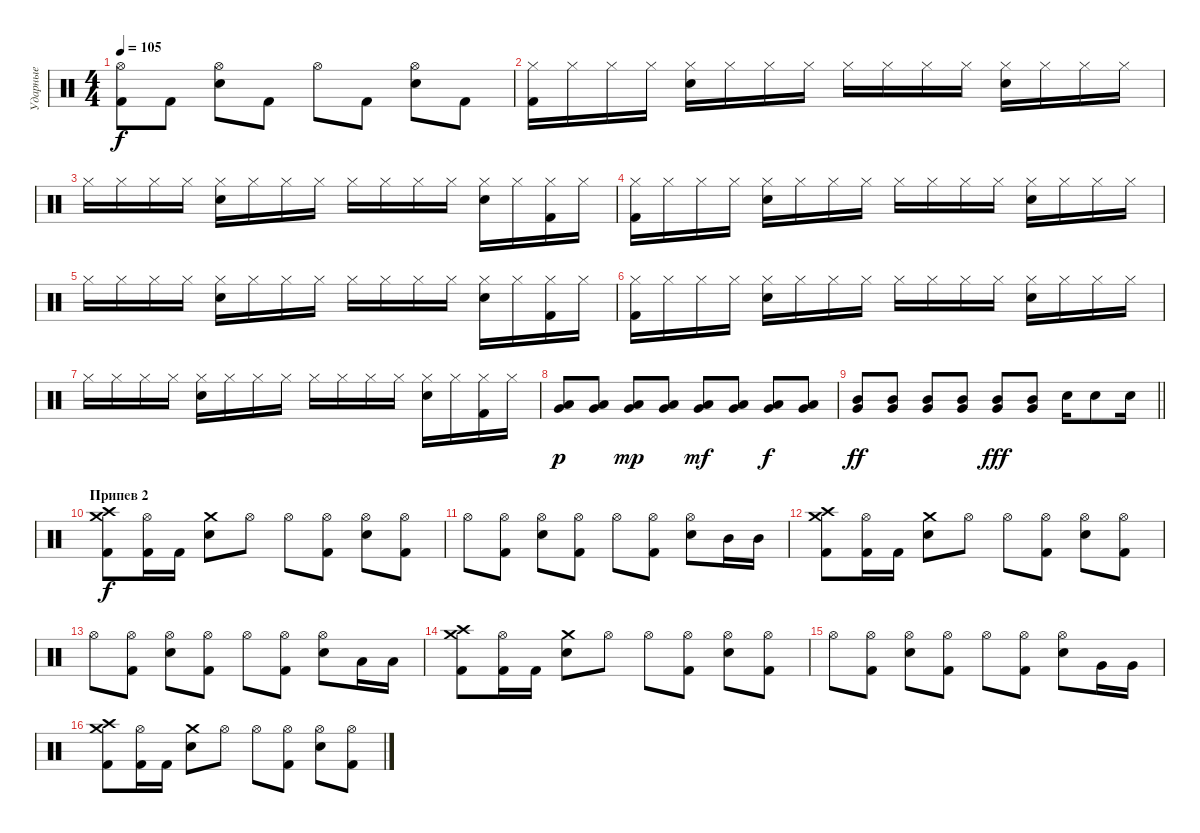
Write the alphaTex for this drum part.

\track ("Ударные" "Ударные") {instrument percussion}
\staff
\articulation defaults
\ts (4 4)
\tempo 105
\clef neutral
\ks c
("Hi-Hat (open)" "Kick (hit) 2").8{dy f} "Kick (hit) 2".8 ("Hi-Hat (open)" "Electric Snare (hit)").8 "Kick (hit) 2".8 "Hi-Hat (open)".8 "Kick (hit) 2".8 ("Hi-Hat (open)" "Electric Snare (hit)").8 "Kick (hit) 2".8 |
("Hi-Hat (closed)" "Kick (hit) 2").16 "Hi-Hat (closed)".16 "Hi-Hat (closed)".16 "Hi-Hat (closed)".16 ("Hi-Hat (closed)" "Electric Snare (hit)").16 "Hi-Hat (closed)".16 "Hi-Hat (closed)".16 "Hi-Hat (closed)".16 "Hi-Hat (closed)".16 "Hi-Hat (closed)".16 "Hi-Hat (closed)".16 "Hi-Hat (closed)".16 ("Hi-Hat (closed)" "Electric Snare (hit)").16 "Hi-Hat (closed)".16 "Hi-Hat (closed)".16 "Hi-Hat (closed)".16 |
"Hi-Hat (closed)".16 "Hi-Hat (closed)".16 "Hi-Hat (closed)".16 "Hi-Hat (closed)".16 ("Hi-Hat (closed)" "Electric Snare (hit)").16 "Hi-Hat (closed)".16 "Hi-Hat (closed)".16 "Hi-Hat (closed)".16 "Hi-Hat (closed)".16 "Hi-Hat (closed)".16 "Hi-Hat (closed)".16 "Hi-Hat (closed)".16 ("Hi-Hat (closed)" "Electric Snare (hit)").16 "Hi-Hat (closed)".16 ("Hi-Hat (closed)" "Kick (hit) 2").16 "Hi-Hat (closed)".16 |
("Hi-Hat (closed)" "Kick (hit) 2").16 "Hi-Hat (closed)".16 "Hi-Hat (closed)".16 "Hi-Hat (closed)".16 ("Hi-Hat (closed)" "Electric Snare (hit)").16 "Hi-Hat (closed)".16 "Hi-Hat (closed)".16 "Hi-Hat (closed)".16 "Hi-Hat (closed)".16 "Hi-Hat (closed)".16 "Hi-Hat (closed)".16 "Hi-Hat (closed)".16 ("Hi-Hat (closed)" "Electric Snare (hit)").16 "Hi-Hat (closed)".16 "Hi-Hat (closed)".16 "Hi-Hat (closed)".16 |
"Hi-Hat (closed)".16 "Hi-Hat (closed)".16 "Hi-Hat (closed)".16 "Hi-Hat (closed)".16 ("Hi-Hat (closed)" "Electric Snare (hit)").16 "Hi-Hat (closed)".16 "Hi-Hat (closed)".16 "Hi-Hat (closed)".16 "Hi-Hat (closed)".16 "Hi-Hat (closed)".16 "Hi-Hat (closed)".16 "Hi-Hat (closed)".16 ("Hi-Hat (closed)" "Electric Snare (hit)").16 "Hi-Hat (closed)".16 ("Hi-Hat (closed)" "Kick (hit) 2").16 "Hi-Hat (closed)".16 |
("Hi-Hat (closed)" "Kick (hit) 2").16 "Hi-Hat (closed)".16 "Hi-Hat (closed)".16 "Hi-Hat (closed)".16 ("Hi-Hat (closed)" "Electric Snare (hit)").16 "Hi-Hat (closed)".16 "Hi-Hat (closed)".16 "Hi-Hat (closed)".16 "Hi-Hat (closed)".16 "Hi-Hat (closed)".16 "Hi-Hat (closed)".16 "Hi-Hat (closed)".16 ("Hi-Hat (closed)" "Electric Snare (hit)").16 "Hi-Hat (closed)".16 "Hi-Hat (closed)".16 "Hi-Hat (closed)".16 |
"Hi-Hat (closed)".16 "Hi-Hat (closed)".16 "Hi-Hat (closed)".16 "Hi-Hat (closed)".16 ("Hi-Hat (closed)" "Electric Snare (hit)").16 "Hi-Hat (closed)".16 "Hi-Hat (closed)".16 "Hi-Hat (closed)".16 "Hi-Hat (closed)".16 "Hi-Hat (closed)".16 "Hi-Hat (closed)".16 "Hi-Hat (closed)".16 ("Hi-Hat (closed)" "Electric Snare (hit)").16 "Hi-Hat (closed)".16 ("Hi-Hat (closed)" "Kick (hit) 2").16 "Hi-Hat (closed)".16 |
("Low Tom (hit)" "Very Low Tom (hit)").8{dy p} ("Low Tom (hit)" "Very Low Tom (hit)").8 ("Low Tom (hit)" "Very Low Tom (hit)").8{dy mp} ("Low Tom (hit)" "Very Low Tom (hit)").8 ("Low Tom (hit)" "Very Low Tom (hit)").8{dy mf} ("Low Tom (hit)" "Very Low Tom (hit)").8 ("Low Tom (hit)" "Very Low Tom (hit)").8{dy f} ("Low Tom (hit)" "Very Low Tom (hit)").8 |
\barLineRight lightlight
("Mid Tom (hit)" "Very Low Tom (hit)").8{dy ff} ("Mid Tom (hit)" "Very Low Tom (hit)").8 ("Mid Tom (hit)" "Very Low Tom (hit)").8 ("Mid Tom (hit)" "Very Low Tom (hit)").8 ("Mid Tom (hit)" "Very Low Tom (hit)").8{dy fff} ("Mid Tom (hit)" "Very Low Tom (hit)").8 "Electric Snare (hit)".16 "Electric Snare (hit)".8 "Electric Snare (hit)".16 |
\section ("" "Припев 2")
("Crash medium (hit)" "Crash high (hit)" "Kick (hit) 2").8{dy f} ("Hi-Hat (open)" "Kick (hit) 2").16 "Kick (hit) 2".16 ("Crash medium (hit)" "Electric Snare (hit)").8 "Hi-Hat (open)".8 "Hi-Hat (open)".8 ("Hi-Hat (open)" "Kick (hit) 2").8 ("Hi-Hat (open)" "Electric Snare (hit)").8 ("Hi-Hat (open)" "Kick (hit) 2").8 |
"Hi-Hat (open)".8 ("Hi-Hat (open)" "Kick (hit) 2").8 ("Hi-Hat (open)" "Electric Snare (hit)").8 ("Hi-Hat (open)" "Kick (hit) 2").8 "Hi-Hat (open)".8 ("Hi-Hat (open)" "Kick (hit) 2").8 ("Hi-Hat (open)" "Electric Snare (hit)").8 "Mid Tom (hit)".16 "Mid Tom (hit)".16 |
("Crash medium (hit)" "Crash high (hit)" "Kick (hit) 2").8 ("Hi-Hat (open)" "Kick (hit) 2").16 "Kick (hit) 2".16 ("Crash medium (hit)" "Electric Snare (hit)").8 "Hi-Hat (open)".8 "Hi-Hat (open)".8 ("Hi-Hat (open)" "Kick (hit) 2").8 ("Hi-Hat (open)" "Electric Snare (hit)").8 ("Hi-Hat (open)" "Kick (hit) 2").8 |
"Hi-Hat (open)".8 ("Hi-Hat (open)" "Kick (hit) 2").8 ("Hi-Hat (open)" "Electric Snare (hit)").8 ("Hi-Hat (open)" "Kick (hit) 2").8 "Hi-Hat (open)".8 ("Hi-Hat (open)" "Kick (hit) 2").8 ("Hi-Hat (open)" "Electric Snare (hit)").8 "Low Tom (hit)".16 "Low Tom (hit)".16 |
("Crash medium (hit)" "Crash high (hit)" "Kick (hit) 2").8 ("Hi-Hat (open)" "Kick (hit) 2").16 "Kick (hit) 2".16 ("Crash medium (hit)" "Electric Snare (hit)").8 "Hi-Hat (open)".8 "Hi-Hat (open)".8 ("Hi-Hat (open)" "Kick (hit) 2").8 ("Hi-Hat (open)" "Electric Snare (hit)").8 ("Hi-Hat (open)" "Kick (hit) 2").8 |
"Hi-Hat (open)".8 ("Hi-Hat (open)" "Kick (hit) 2").8 ("Hi-Hat (open)" "Electric Snare (hit)").8 ("Hi-Hat (open)" "Kick (hit) 2").8 "Hi-Hat (open)".8 ("Hi-Hat (open)" "Kick (hit) 2").8 ("Hi-Hat (open)" "Electric Snare (hit)").8 "Very Low Tom (hit)".16 "Very Low Tom (hit)".16 |
("Crash medium (hit)" "Crash high (hit)" "Kick (hit) 2").8 ("Hi-Hat (open)" "Kick (hit) 2").16 "Kick (hit) 2".16 ("Crash medium (hit)" "Electric Snare (hit)").8 "Hi-Hat (open)".8 "Hi-Hat (open)".8 ("Hi-Hat (open)" "Kick (hit) 2").8 ("Hi-Hat (open)" "Electric Snare (hit)").8 ("Hi-Hat (open)" "Kick (hit) 2").8
